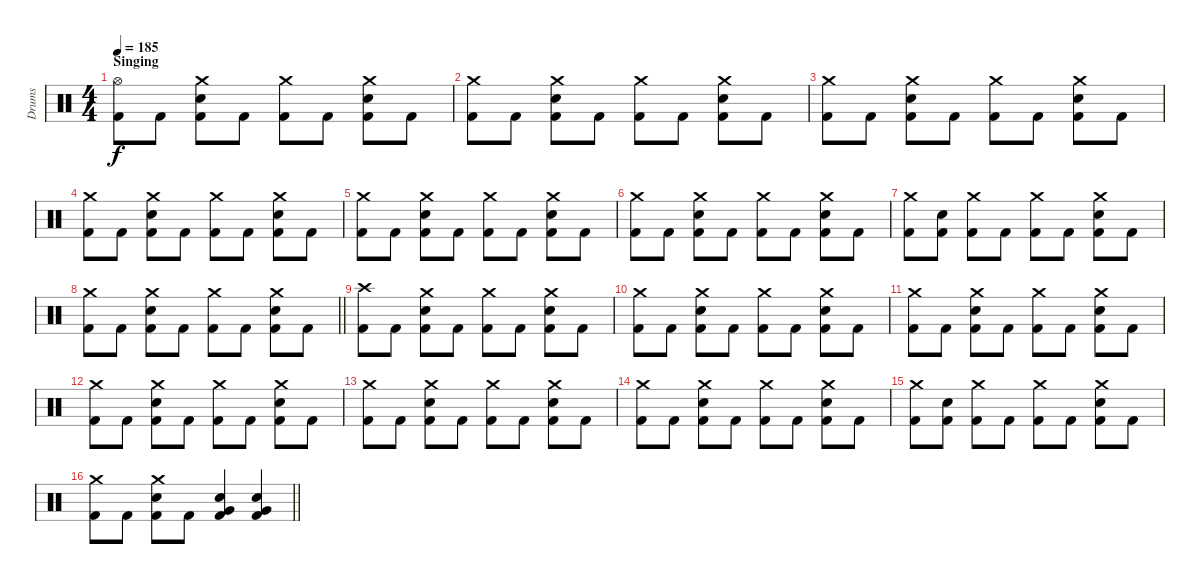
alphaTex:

\track ("Drums" "Drums") {instrument percussion}
\staff {score}
\articulation defaults
\ts (4 4)
\section ("" "Singing")
\tempo 185
\clef neutral
\ks c
("Kick (hit) 2" "Hi-Hat (open)").8{dy f} "Kick (hit) 2".8 ("Kick (hit) 2" "Snare (hit) 2" "Crash medium (hit)").8 "Kick (hit) 2".8 ("Kick (hit) 2" "Crash medium (hit)").8 "Kick (hit) 2".8 ("Kick (hit) 2" "Snare (hit) 2" "Crash medium (hit)").8 "Kick (hit) 2".8 |
("Kick (hit) 2" "Crash medium (hit)").8 "Kick (hit) 2".8 ("Kick (hit) 2" "Snare (hit) 2" "Crash medium (hit)").8 "Kick (hit) 2".8 ("Kick (hit) 2" "Crash medium (hit)").8 "Kick (hit) 2".8 ("Kick (hit) 2" "Snare (hit) 2" "Crash medium (hit)").8 "Kick (hit) 2".8 |
("Kick (hit) 2" "Crash medium (hit)").8 "Kick (hit) 2".8 ("Kick (hit) 2" "Snare (hit) 2" "Crash medium (hit)").8 "Kick (hit) 2".8 ("Kick (hit) 2" "Crash medium (hit)").8 "Kick (hit) 2".8 ("Kick (hit) 2" "Snare (hit) 2" "Crash medium (hit)").8 "Kick (hit) 2".8 |
("Kick (hit) 2" "Crash medium (hit)").8 "Kick (hit) 2".8 ("Kick (hit) 2" "Snare (hit) 2" "Crash medium (hit)").8 "Kick (hit) 2".8 ("Kick (hit) 2" "Crash medium (hit)").8 "Kick (hit) 2".8 ("Kick (hit) 2" "Snare (hit) 2" "Crash medium (hit)").8 "Kick (hit) 2".8 |
("Kick (hit) 2" "Crash medium (hit)").8 "Kick (hit) 2".8 ("Kick (hit) 2" "Snare (hit) 2" "Crash medium (hit)").8 "Kick (hit) 2".8 ("Kick (hit) 2" "Crash medium (hit)").8 "Kick (hit) 2".8 ("Kick (hit) 2" "Snare (hit) 2" "Crash medium (hit)").8 "Kick (hit) 2".8 |
("Kick (hit) 2" "Crash medium (hit)").8 "Kick (hit) 2".8 ("Kick (hit) 2" "Snare (hit) 2" "Crash medium (hit)").8 "Kick (hit) 2".8 ("Kick (hit) 2" "Crash medium (hit)").8 "Kick (hit) 2".8 ("Kick (hit) 2" "Snare (hit) 2" "Crash medium (hit)").8 "Kick (hit) 2".8 |
("Kick (hit) 2" "Crash medium (hit)").8 ("Kick (hit) 2" "Snare (hit) 2").8 ("Kick (hit) 2" "Crash medium (hit)").8 "Kick (hit) 2".8 ("Kick (hit) 2" "Crash medium (hit)").8 "Kick (hit) 2".8 ("Kick (hit) 2" "Snare (hit) 2" "Crash medium (hit)").8 "Kick (hit) 2".8 |
\barLineRight lightlight
("Kick (hit) 2" "Crash medium (hit)").8 "Kick (hit) 2".8 ("Kick (hit) 2" "Snare (hit) 2" "Crash medium (hit)").8 "Kick (hit) 2".8 ("Kick (hit) 2" "Crash medium (hit)").8 "Kick (hit) 2".8 ("Kick (hit) 2" "Snare (hit) 2" "Crash medium (hit)").8 "Kick (hit) 2".8 |
\section ("" "")
("Kick (hit) 2" "Crash high (hit)").8 "Kick (hit) 2".8 ("Kick (hit) 2" "Snare (hit) 2" "Crash medium (hit)").8 "Kick (hit) 2".8 ("Kick (hit) 2" "Crash medium (hit)").8 "Kick (hit) 2".8 ("Kick (hit) 2" "Snare (hit) 2" "Crash medium (hit)").8 "Kick (hit) 2".8 |
("Kick (hit) 2" "Crash medium (hit)").8 "Kick (hit) 2".8 ("Kick (hit) 2" "Snare (hit) 2" "Crash medium (hit)").8 "Kick (hit) 2".8 ("Kick (hit) 2" "Crash medium (hit)").8 "Kick (hit) 2".8 ("Kick (hit) 2" "Snare (hit) 2" "Crash medium (hit)").8 "Kick (hit) 2".8 |
("Kick (hit) 2" "Crash medium (hit)").8 "Kick (hit) 2".8 ("Kick (hit) 2" "Snare (hit) 2" "Crash medium (hit)").8 "Kick (hit) 2".8 ("Kick (hit) 2" "Crash medium (hit)").8 "Kick (hit) 2".8 ("Kick (hit) 2" "Snare (hit) 2" "Crash medium (hit)").8 "Kick (hit) 2".8 |
("Kick (hit) 2" "Crash medium (hit)").8 "Kick (hit) 2".8 ("Kick (hit) 2" "Snare (hit) 2" "Crash medium (hit)").8 "Kick (hit) 2".8 ("Kick (hit) 2" "Crash medium (hit)").8 "Kick (hit) 2".8 ("Kick (hit) 2" "Snare (hit) 2" "Crash medium (hit)").8 "Kick (hit) 2".8 |
("Kick (hit) 2" "Crash medium (hit)").8 "Kick (hit) 2".8 ("Kick (hit) 2" "Snare (hit) 2" "Crash medium (hit)").8 "Kick (hit) 2".8 ("Kick (hit) 2" "Crash medium (hit)").8 "Kick (hit) 2".8 ("Kick (hit) 2" "Snare (hit) 2" "Crash medium (hit)").8 "Kick (hit) 2".8 |
("Kick (hit) 2" "Crash medium (hit)").8 "Kick (hit) 2".8 ("Kick (hit) 2" "Snare (hit) 2" "Crash medium (hit)").8 "Kick (hit) 2".8 ("Kick (hit) 2" "Crash medium (hit)").8 "Kick (hit) 2".8 ("Kick (hit) 2" "Snare (hit) 2" "Crash medium (hit)").8 "Kick (hit) 2".8 |
("Kick (hit) 2" "Crash medium (hit)").8 ("Kick (hit) 2" "Snare (hit) 2").8 ("Kick (hit) 2" "Crash medium (hit)").8 "Kick (hit) 2".8 ("Kick (hit) 2" "Crash medium (hit)").8 "Kick (hit) 2".8 ("Kick (hit) 2" "Snare (hit) 2" "Crash medium (hit)").8 "Kick (hit) 2".8 |
\barLineRight lightlight
("Kick (hit) 2" "Crash medium (hit)").8 "Kick (hit) 2".8 ("Kick (hit) 2" "Snare (hit) 2" "Crash medium (hit)").8 "Kick (hit) 2".8 ("Kick (hit) 2" "Snare (hit) 2" "Very Low Tom (hit)").4 ("Kick (hit) 2" "Snare (hit) 2" "Very Low Tom (hit)").4
